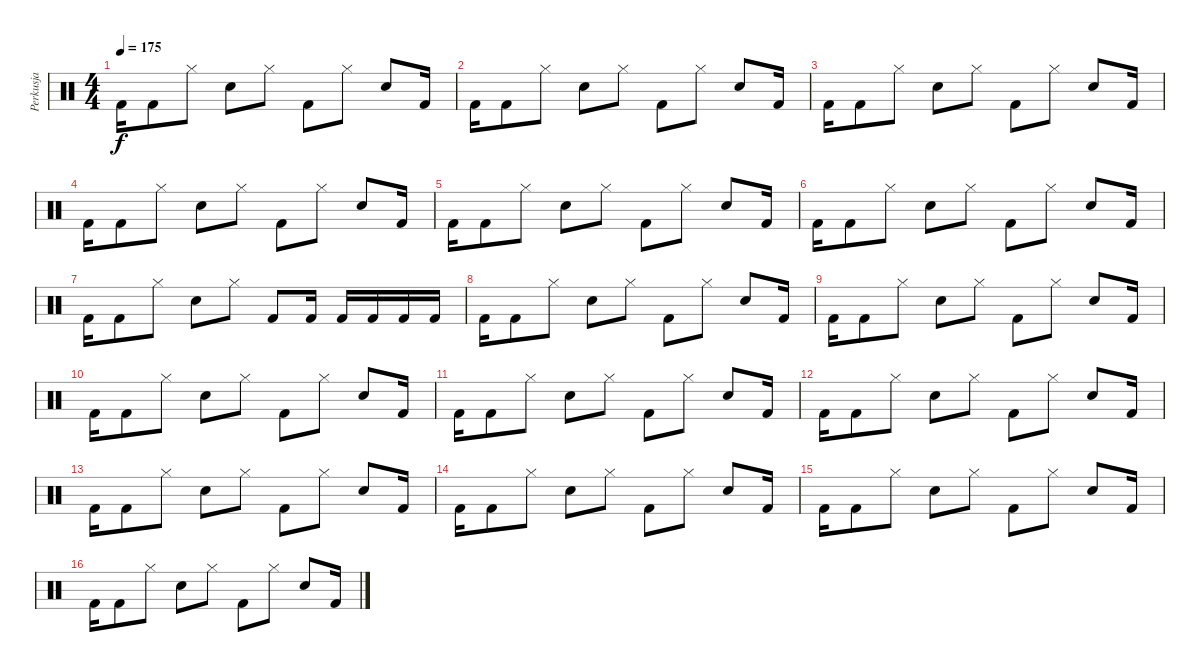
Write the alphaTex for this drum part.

\track ("Perkusja" "Perkusja") {instrument percussion}
\staff {score}
\articulation defaults
\ts (4 4)
\tempo 175
\clef neutral
\ks c "Kick (hit) 2".16{dy f} "Kick (hit) 2".8 "Hi-Hat (closed)".8 "Snare (hit) 2".8 "Hi-Hat (closed)".8 "Kick (hit) 2".8 "Hi-Hat (closed)".8 "Snare (hit) 2".8 "Kick (hit) 2".16
|
"Kick (hit) 2".16 "Kick (hit) 2".8 "Hi-Hat (closed)".8 "Snare (hit) 2".8 "Hi-Hat (closed)".8 "Kick (hit) 2".8 "Hi-Hat (closed)".8 "Snare (hit) 2".8 "Kick (hit) 2".16 |
"Kick (hit) 2".16 "Kick (hit) 2".8 "Hi-Hat (closed)".8 "Snare (hit) 2".8 "Hi-Hat (closed)".8 "Kick (hit) 2".8 "Hi-Hat (closed)".8 "Snare (hit) 2".8 "Kick (hit) 2".16 |
"Kick (hit) 2".16 "Kick (hit) 2".8 "Hi-Hat (closed)".8 "Snare (hit) 2".8 "Hi-Hat (closed)".8 "Kick (hit) 2".8 "Hi-Hat (closed)".8 "Snare (hit) 2".8 "Kick (hit) 2".16 |
"Kick (hit) 2".16 "Kick (hit) 2".8 "Hi-Hat (closed)".8 "Snare (hit) 2".8 "Hi-Hat (closed)".8 "Kick (hit) 2".8 "Hi-Hat (closed)".8 "Snare (hit) 2".8 "Kick (hit) 2".16 |
"Kick (hit) 2".16 "Kick (hit) 2".8 "Hi-Hat (closed)".8 "Snare (hit) 2".8 "Hi-Hat (closed)".8 "Kick (hit) 2".8 "Hi-Hat (closed)".8 "Snare (hit) 2".8 "Kick (hit) 2".16 |
"Kick (hit) 2".16 "Kick (hit) 2".8 "Hi-Hat (closed)".8 "Snare (hit) 2".8 "Hi-Hat (closed)".8 "Kick (hit) 2".8 "Kick (hit) 2".16 "Kick (hit) 2".16 "Kick (hit) 2".16 "Kick (hit) 2".16 "Kick (hit) 2".16 |
"Kick (hit) 2".16 "Kick (hit) 2".8 "Hi-Hat (closed)".8 "Snare (hit) 2".8 "Hi-Hat (closed)".8 "Kick (hit) 2".8 "Hi-Hat (closed)".8 "Snare (hit) 2".8 "Kick (hit) 2".16 |
"Kick (hit) 2".16 "Kick (hit) 2".8 "Hi-Hat (closed)".8 "Snare (hit) 2".8 "Hi-Hat (closed)".8 "Kick (hit) 2".8 "Hi-Hat (closed)".8 "Snare (hit) 2".8 "Kick (hit) 2".16 |
"Kick (hit) 2".16 "Kick (hit) 2".8 "Hi-Hat (closed)".8 "Snare (hit) 2".8 "Hi-Hat (closed)".8 "Kick (hit) 2".8 "Hi-Hat (closed)".8 "Snare (hit) 2".8 "Kick (hit) 2".16 |
"Kick (hit) 2".16 "Kick (hit) 2".8 "Hi-Hat (closed)".8 "Snare (hit) 2".8 "Hi-Hat (closed)".8 "Kick (hit) 2".8 "Hi-Hat (closed)".8 "Snare (hit) 2".8 "Kick (hit) 2".16 |
"Kick (hit) 2".16 "Kick (hit) 2".8 "Hi-Hat (closed)".8 "Snare (hit) 2".8 "Hi-Hat (closed)".8 "Kick (hit) 2".8 "Hi-Hat (closed)".8 "Snare (hit) 2".8 "Kick (hit) 2".16 |
"Kick (hit) 2".16 "Kick (hit) 2".8 "Hi-Hat (closed)".8 "Snare (hit) 2".8 "Hi-Hat (closed)".8 "Kick (hit) 2".8 "Hi-Hat (closed)".8 "Snare (hit) 2".8 "Kick (hit) 2".16 |
"Kick (hit) 2".16 "Kick (hit) 2".8 "Hi-Hat (closed)".8 "Snare (hit) 2".8 "Hi-Hat (closed)".8 "Kick (hit) 2".8 "Hi-Hat (closed)".8 "Snare (hit) 2".8 "Kick (hit) 2".16 |
"Kick (hit) 2".16 "Kick (hit) 2".8 "Hi-Hat (closed)".8 "Snare (hit) 2".8 "Hi-Hat (closed)".8 "Kick (hit) 2".8 "Hi-Hat (closed)".8 "Snare (hit) 2".8 "Kick (hit) 2".16 |
"Kick (hit) 2".16 "Kick (hit) 2".8 "Hi-Hat (closed)".8 "Snare (hit) 2".8 "Hi-Hat (closed)".8 "Kick (hit) 2".8 "Hi-Hat (closed)".8 "Snare (hit) 2".8 "Kick (hit) 2".16
